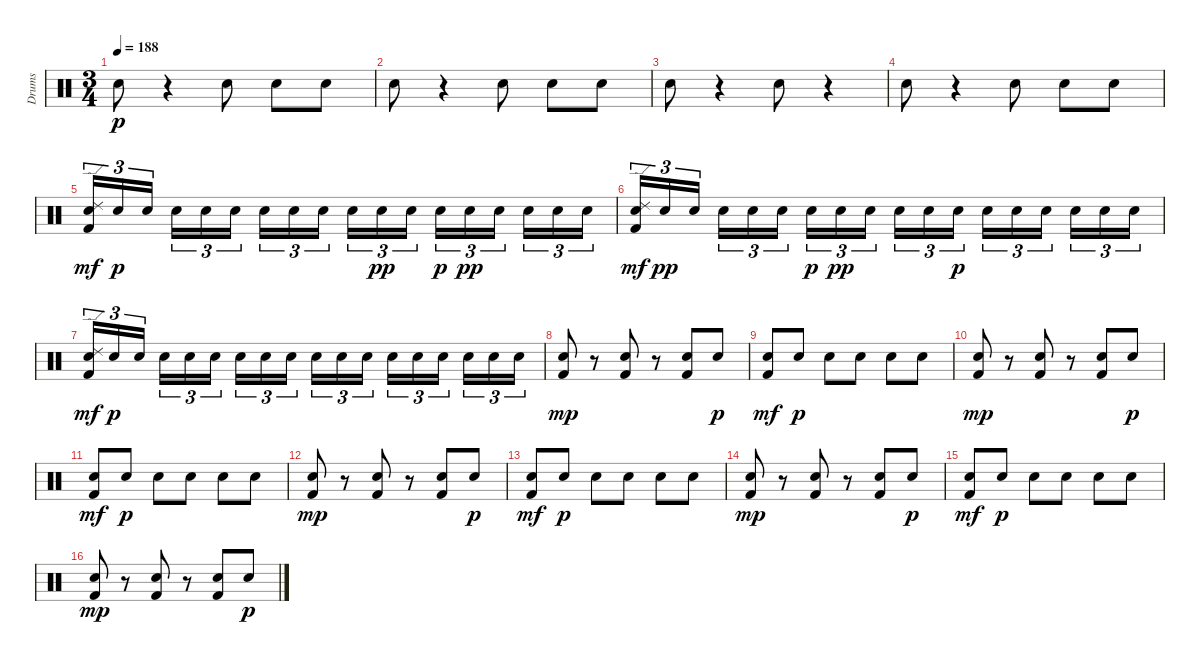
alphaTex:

\track ("Drums" "Drums") {instrument percussion}
\staff {score}
\articulation defaults
\ts (3 4)
\tempo 188
\clef neutral
\ks c "Electric Snare (hit)".8{dy p}
r.4 "Electric Snare (hit)".8 "Electric Snare (hit)".8 "Electric Snare (hit)".8 |
"Electric Snare (hit)".8 r.4 "Electric Snare (hit)".8 "Electric Snare (hit)".8 "Electric Snare (hit)".8 |
"Electric Snare (hit)".8 r.4 "Electric Snare (hit)".8 r.4 |
"Electric Snare (hit)".8 r.4 "Electric Snare (hit)".8 "Electric Snare (hit)".8 "Electric Snare (hit)".8 |
("Electric Snare (hit)" "Ride (edge) 2" "Kick (hit) 2").16{tu (3 2) dy mf} "Electric Snare (hit)".16{tu (3 2) dy p} "Electric Snare (hit)".16{tu (3 2)} "Electric Snare (hit)".16{tu (3 2)} "Electric Snare (hit)".16{tu (3 2)} "Electric Snare (hit)".16{tu (3 2)} "Electric Snare (hit)".16{tu (3 2)} "Electric Snare (hit)".16{tu (3 2)} "Electric Snare (hit)".16{tu (3 2)} "Electric Snare (hit)".16{tu (3 2)} "Electric Snare (hit)".16{tu (3 2) dy pp} "Electric Snare (hit)".16{tu (3 2)} "Electric Snare (hit)".16{tu (3 2) dy p} "Electric Snare (hit)".16{tu (3 2) dy pp} "Electric Snare (hit)".16{tu (3 2)} "Electric Snare (hit)".16{tu (3 2)} "Electric Snare (hit)".16{tu (3 2)} "Electric Snare (hit)".16{tu (3 2)} |
("Electric Snare (hit)" "Kick (hit) 2" "Ride (edge) 2").16{tu (3 2) dy mf} "Electric Snare (hit)".16{tu (3 2) dy pp} "Electric Snare (hit)".16{tu (3 2)} "Electric Snare (hit)".16{tu (3 2)} "Electric Snare (hit)".16{tu (3 2)} "Electric Snare (hit)".16{tu (3 2)} "Electric Snare (hit)".16{tu (3 2) dy p} "Electric Snare (hit)".16{tu (3 2) dy pp} "Electric Snare (hit)".16{tu (3 2)} "Electric Snare (hit)".16{tu (3 2)} "Electric Snare (hit)".16{tu (3 2)} "Electric Snare (hit)".16{tu (3 2) dy p} "Electric Snare (hit)".16{tu (3 2)} "Electric Snare (hit)".16{tu (3 2)} "Electric Snare (hit)".16{tu (3 2)} "Electric Snare (hit)".16{tu (3 2)} "Electric Snare (hit)".16{tu (3 2)} "Electric Snare (hit)".16{tu (3 2)} |
("Electric Snare (hit)" "Kick (hit) 2" "Ride (edge) 2").16{tu (3 2) dy mf} "Electric Snare (hit)".16{tu (3 2) dy p} "Electric Snare (hit)".16{tu (3 2)} "Electric Snare (hit)".16{tu (3 2)} "Electric Snare (hit)".16{tu (3 2)} "Electric Snare (hit)".16{tu (3 2)} "Electric Snare (hit)".16{tu (3 2)} "Electric Snare (hit)".16{tu (3 2)} "Electric Snare (hit)".16{tu (3 2)} "Electric Snare (hit)".16{tu (3 2)} "Electric Snare (hit)".16{tu (3 2)} "Electric Snare (hit)".16{tu (3 2)} "Electric Snare (hit)".16{tu (3 2)} "Electric Snare (hit)".16{tu (3 2)} "Electric Snare (hit)".16{tu (3 2)} "Electric Snare (hit)".16{tu (3 2)} "Electric Snare (hit)".16{tu (3 2)} "Electric Snare (hit)".16{tu (3 2)} |
("Kick (hit) 2" "Electric Snare (hit)").8{dy mp} r.8 ("Kick (hit) 2" "Electric Snare (hit)").8 r.8 ("Kick (hit) 2" "Electric Snare (hit)").8 "Electric Snare (hit)".8{dy p} |
("Kick (hit) 2" "Electric Snare (hit)").8{dy mf} "Electric Snare (hit)".8{dy p} "Electric Snare (hit)".8 "Electric Snare (hit)".8 "Electric Snare (hit)".8 "Electric Snare (hit)".8 |
("Kick (hit) 2" "Electric Snare (hit)").8{dy mp} r.8 ("Kick (hit) 2" "Electric Snare (hit)").8 r.8 ("Kick (hit) 2" "Electric Snare (hit)").8 "Electric Snare (hit)".8{dy p} |
("Kick (hit) 2" "Electric Snare (hit)").8{dy mf} "Electric Snare (hit)".8{dy p} "Electric Snare (hit)".8 "Electric Snare (hit)".8 "Electric Snare (hit)".8 "Electric Snare (hit)".8 |
("Kick (hit) 2" "Electric Snare (hit)").8{dy mp} r.8 ("Kick (hit) 2" "Electric Snare (hit)").8 r.8 ("Kick (hit) 2" "Electric Snare (hit)").8 "Electric Snare (hit)".8{dy p} |
("Kick (hit) 2" "Electric Snare (hit)").8{dy mf} "Electric Snare (hit)".8{dy p} "Electric Snare (hit)".8 "Electric Snare (hit)".8 "Electric Snare (hit)".8 "Electric Snare (hit)".8 |
("Kick (hit) 2" "Electric Snare (hit)").8{dy mp} r.8 ("Kick (hit) 2" "Electric Snare (hit)").8 r.8 ("Kick (hit) 2" "Electric Snare (hit)").8 "Electric Snare (hit)".8{dy p} |
("Kick (hit) 2" "Electric Snare (hit)").8{dy mf} "Electric Snare (hit)".8{dy p} "Electric Snare (hit)".8 "Electric Snare (hit)".8 "Electric Snare (hit)".8 "Electric Snare (hit)".8 |
("Kick (hit) 2" "Electric Snare (hit)").8{dy mp} r.8 ("Kick (hit) 2" "Electric Snare (hit)").8 r.8 ("Kick (hit) 2" "Electric Snare (hit)").8 "Electric Snare (hit)".8{dy p}
